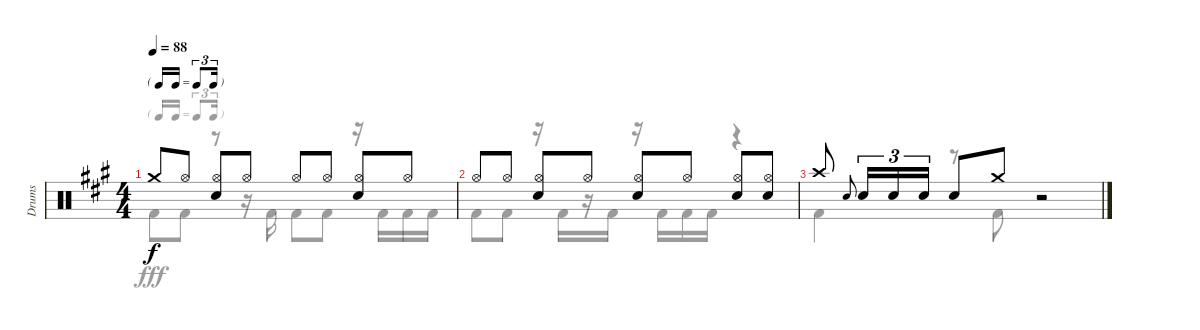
\track ("Drums" "Drums") {instrument percussion}
\staff {score}
\articulation defaults
\voice
\ts (4 4)
\tf triplet16th
\tempo 88
\clef neutral
\ks a "Crash medium (hit)".8{dy f} "Hi-Hat (open)".8
("Hi-Hat (open)" "Snare (hit) 2").8 "Hi-Hat (open)".8 "Hi-Hat (open)".8 "Hi-Hat (open)".8 ("Hi-Hat (open)" "Snare (hit) 2").8 "Hi-Hat (open)".8 |
"Hi-Hat (open)".8 "Hi-Hat (open)".8 ("Hi-Hat (open)" "Snare (hit) 2").8 "Hi-Hat (open)".8 ("Hi-Hat (open)" "Snare (hit) 2").8 "Hi-Hat (open)".8 ("Hi-Hat (open)" "Snare (hit) 2").8 ("Hi-Hat (open)" "Snare (hit) 2").8 |
"Crash high (hit)".8 "Snare (hit) 2".8{gr onbeat} "Snare (hit) 2".16{tu (3 2)} "Snare (hit) 2".16{tu (3 2)} "Snare (hit) 2".16{tu (3 2)} "Snare (hit) 2".8 "Crash medium (hit)".8 r.2
\voice
\clef neutral
\ottava regular
\simile none
\ks a "Kick (hit) 2".8{dy fff} "Kick (hit) 2".8
r.8 r.16 "Kick (hit) 2".16 "Kick (hit) 2".8 "Kick (hit) 2".8 r.16 "Kick (hit) 2".16 "Kick (hit) 2".16 "Kick (hit) 2".16 |
"Kick (hit) 2".8 "Kick (hit) 2".8 r.16 "Kick (hit) 2".16 r.16 "Kick (hit) 2".16 r.16 "Kick (hit) 2".16 "Kick (hit) 2".16 "Kick (hit) 2".16 r.4 |
"Kick (hit) 2".4 r.8 "Kick (hit) 2".8 r.2
